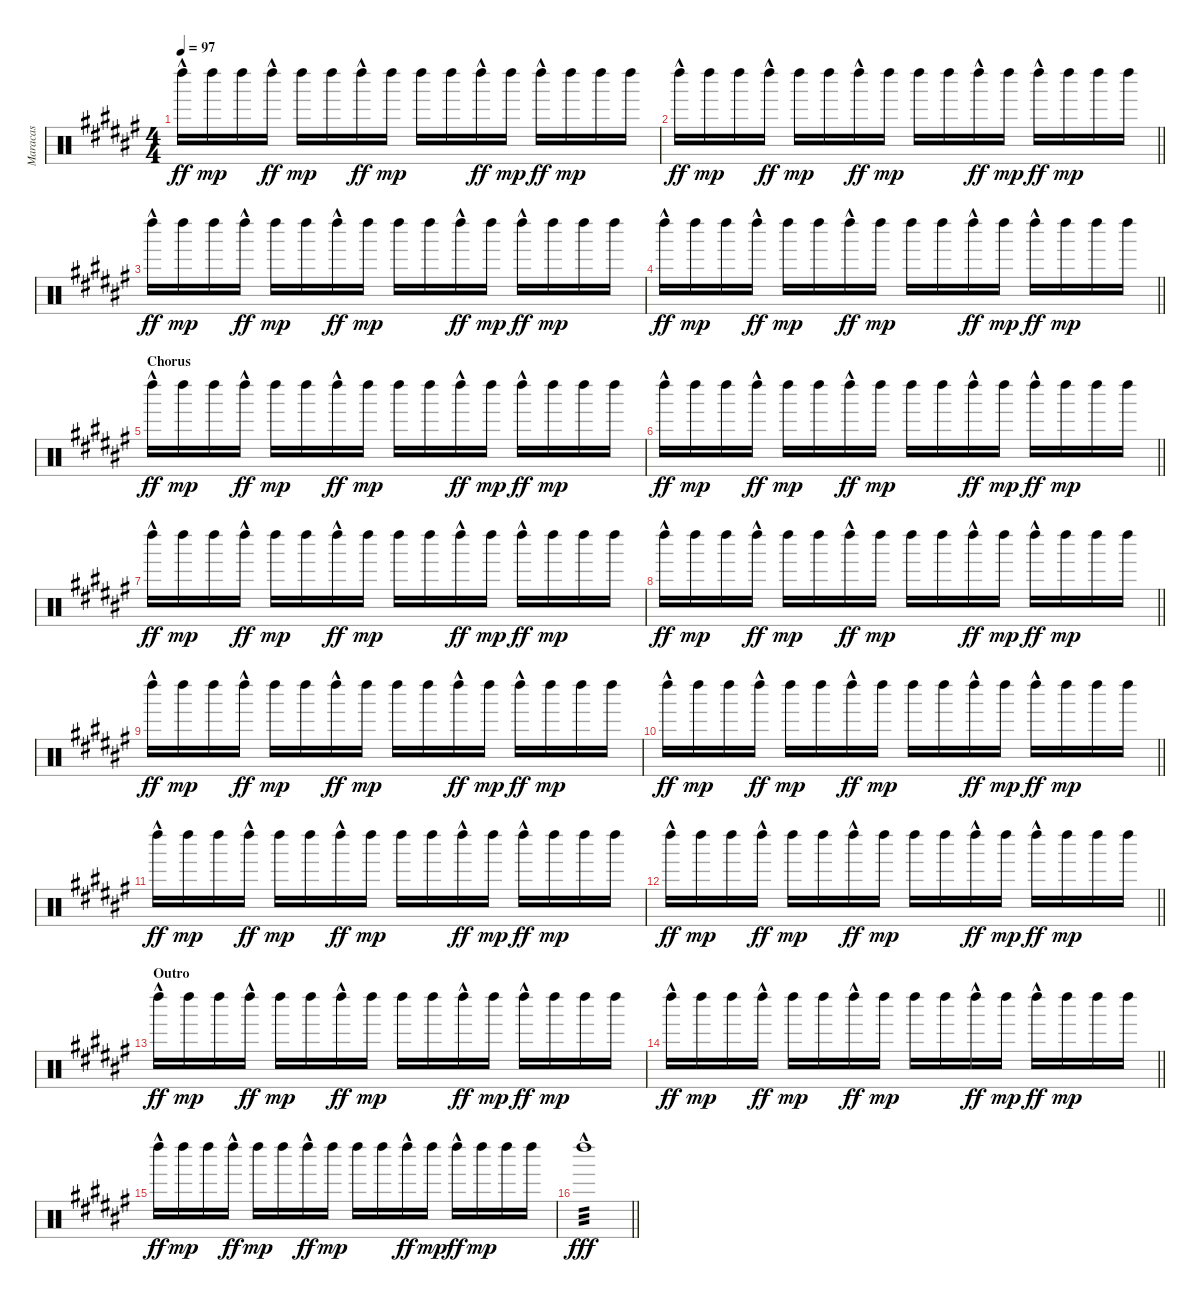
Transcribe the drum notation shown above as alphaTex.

\track ("Maracas" "Maracas") {instrument percussion}
\staff {score}
\articulation defaults
\ts (4 4)
\tempo 97
\clef neutral
\ks f# "Left Maraca (hit)"{hac}.16{dy ff} "Left Maraca (hit)".16{dy mp} "Left Maraca (hit)".16 "Left Maraca (hit)"{hac}.16{dy ff} "Left Maraca (hit)".16{dy mp} "Left Maraca (hit)".16 "Left Maraca (hit)"{hac}.16{dy ff} "Left Maraca (hit)".16{dy mp} "Left Maraca (hit)".16 "Left Maraca (hit)".16 "Left Maraca (hit)"{hac}.16{dy ff} "Left Maraca (hit)".16{dy mp} "Left Maraca (hit)"{hac}.16{dy ff} "Left Maraca (hit)".16{dy mp} "Left Maraca (hit)".16 "Left Maraca (hit)".16
|
\barLineRight lightlight "Left Maraca (hit)"{hac}.16{dy ff} "Left Maraca (hit)".16{dy mp} "Left Maraca (hit)".16 "Left Maraca (hit)"{hac}.16{dy ff} "Left Maraca (hit)".16{dy mp} "Left Maraca (hit)".16 "Left Maraca (hit)"{hac}.16{dy ff} "Left Maraca (hit)".16{dy mp} "Left Maraca (hit)".16 "Left Maraca (hit)".16 "Left Maraca (hit)"{hac}.16{dy ff} "Left Maraca (hit)".16{dy mp} "Left Maraca (hit)"{hac}.16{dy ff} "Left Maraca (hit)".16{dy mp} "Left Maraca (hit)".16 "Left Maraca (hit)".16
|
"Left Maraca (hit)"{hac}.16{dy ff} "Left Maraca (hit)".16{dy mp} "Left Maraca (hit)".16 "Left Maraca (hit)"{hac}.16{dy ff} "Left Maraca (hit)".16{dy mp} "Left Maraca (hit)".16 "Left Maraca (hit)"{hac}.16{dy ff} "Left Maraca (hit)".16{dy mp} "Left Maraca (hit)".16 "Left Maraca (hit)".16 "Left Maraca (hit)"{hac}.16{dy ff} "Left Maraca (hit)".16{dy mp} "Left Maraca (hit)"{hac}.16{dy ff} "Left Maraca (hit)".16{dy mp} "Left Maraca (hit)".16 "Left Maraca (hit)".16 |
\barLineRight lightlight "Left Maraca (hit)"{hac}.16{dy ff} "Left Maraca (hit)".16{dy mp} "Left Maraca (hit)".16 "Left Maraca (hit)"{hac}.16{dy ff} "Left Maraca (hit)".16{dy mp} "Left Maraca (hit)".16 "Left Maraca (hit)"{hac}.16{dy ff} "Left Maraca (hit)".16{dy mp} "Left Maraca (hit)".16 "Left Maraca (hit)".16 "Left Maraca (hit)"{hac}.16{dy ff} "Left Maraca (hit)".16{dy mp} "Left Maraca (hit)"{hac}.16{dy ff} "Left Maraca (hit)".16{dy mp} "Left Maraca (hit)".16 "Left Maraca (hit)".16
|
\section ("" "Chorus")
"Left Maraca (hit)"{hac}.16{dy ff} "Left Maraca (hit)".16{dy mp} "Left Maraca (hit)".16 "Left Maraca (hit)"{hac}.16{dy ff} "Left Maraca (hit)".16{dy mp} "Left Maraca (hit)".16 "Left Maraca (hit)"{hac}.16{dy ff} "Left Maraca (hit)".16{dy mp} "Left Maraca (hit)".16 "Left Maraca (hit)".16 "Left Maraca (hit)"{hac}.16{dy ff} "Left Maraca (hit)".16{dy mp} "Left Maraca (hit)"{hac}.16{dy ff} "Left Maraca (hit)".16{dy mp} "Left Maraca (hit)".16 "Left Maraca (hit)".16 |
\barLineRight lightlight "Left Maraca (hit)"{hac}.16{dy ff} "Left Maraca (hit)".16{dy mp} "Left Maraca (hit)".16 "Left Maraca (hit)"{hac}.16{dy ff} "Left Maraca (hit)".16{dy mp} "Left Maraca (hit)".16 "Left Maraca (hit)"{hac}.16{dy ff} "Left Maraca (hit)".16{dy mp} "Left Maraca (hit)".16 "Left Maraca (hit)".16 "Left Maraca (hit)"{hac}.16{dy ff} "Left Maraca (hit)".16{dy mp} "Left Maraca (hit)"{hac}.16{dy ff} "Left Maraca (hit)".16{dy mp} "Left Maraca (hit)".16 "Left Maraca (hit)".16
|
"Left Maraca (hit)"{hac}.16{dy ff} "Left Maraca (hit)".16{dy mp} "Left Maraca (hit)".16 "Left Maraca (hit)"{hac}.16{dy ff} "Left Maraca (hit)".16{dy mp} "Left Maraca (hit)".16 "Left Maraca (hit)"{hac}.16{dy ff} "Left Maraca (hit)".16{dy mp} "Left Maraca (hit)".16 "Left Maraca (hit)".16 "Left Maraca (hit)"{hac}.16{dy ff} "Left Maraca (hit)".16{dy mp} "Left Maraca (hit)"{hac}.16{dy ff} "Left Maraca (hit)".16{dy mp} "Left Maraca (hit)".16 "Left Maraca (hit)".16 |
\barLineRight lightlight "Left Maraca (hit)"{hac}.16{dy ff} "Left Maraca (hit)".16{dy mp} "Left Maraca (hit)".16 "Left Maraca (hit)"{hac}.16{dy ff} "Left Maraca (hit)".16{dy mp} "Left Maraca (hit)".16 "Left Maraca (hit)"{hac}.16{dy ff} "Left Maraca (hit)".16{dy mp} "Left Maraca (hit)".16 "Left Maraca (hit)".16 "Left Maraca (hit)"{hac}.16{dy ff} "Left Maraca (hit)".16{dy mp} "Left Maraca (hit)"{hac}.16{dy ff} "Left Maraca (hit)".16{dy mp} "Left Maraca (hit)".16 "Left Maraca (hit)".16
|
"Left Maraca (hit)"{hac}.16{dy ff} "Left Maraca (hit)".16{dy mp} "Left Maraca (hit)".16 "Left Maraca (hit)"{hac}.16{dy ff} "Left Maraca (hit)".16{dy mp} "Left Maraca (hit)".16 "Left Maraca (hit)"{hac}.16{dy ff} "Left Maraca (hit)".16{dy mp} "Left Maraca (hit)".16 "Left Maraca (hit)".16 "Left Maraca (hit)"{hac}.16{dy ff} "Left Maraca (hit)".16{dy mp} "Left Maraca (hit)"{hac}.16{dy ff} "Left Maraca (hit)".16{dy mp} "Left Maraca (hit)".16 "Left Maraca (hit)".16 |
\barLineRight lightlight "Left Maraca (hit)"{hac}.16{dy ff} "Left Maraca (hit)".16{dy mp} "Left Maraca (hit)".16 "Left Maraca (hit)"{hac}.16{dy ff} "Left Maraca (hit)".16{dy mp} "Left Maraca (hit)".16 "Left Maraca (hit)"{hac}.16{dy ff} "Left Maraca (hit)".16{dy mp} "Left Maraca (hit)".16 "Left Maraca (hit)".16 "Left Maraca (hit)"{hac}.16{dy ff} "Left Maraca (hit)".16{dy mp} "Left Maraca (hit)"{hac}.16{dy ff} "Left Maraca (hit)".16{dy mp} "Left Maraca (hit)".16 "Left Maraca (hit)".16
|
"Left Maraca (hit)"{hac}.16{dy ff} "Left Maraca (hit)".16{dy mp} "Left Maraca (hit)".16 "Left Maraca (hit)"{hac}.16{dy ff} "Left Maraca (hit)".16{dy mp} "Left Maraca (hit)".16 "Left Maraca (hit)"{hac}.16{dy ff} "Left Maraca (hit)".16{dy mp} "Left Maraca (hit)".16 "Left Maraca (hit)".16 "Left Maraca (hit)"{hac}.16{dy ff} "Left Maraca (hit)".16{dy mp} "Left Maraca (hit)"{hac}.16{dy ff} "Left Maraca (hit)".16{dy mp} "Left Maraca (hit)".16 "Left Maraca (hit)".16 |
\barLineRight lightlight "Left Maraca (hit)"{hac}.16{dy ff} "Left Maraca (hit)".16{dy mp} "Left Maraca (hit)".16 "Left Maraca (hit)"{hac}.16{dy ff} "Left Maraca (hit)".16{dy mp} "Left Maraca (hit)".16 "Left Maraca (hit)"{hac}.16{dy ff} "Left Maraca (hit)".16{dy mp} "Left Maraca (hit)".16 "Left Maraca (hit)".16 "Left Maraca (hit)"{hac}.16{dy ff} "Left Maraca (hit)".16{dy mp} "Left Maraca (hit)"{hac}.16{dy ff} "Left Maraca (hit)".16{dy mp} "Left Maraca (hit)".16 "Left Maraca (hit)".16
|
\section ("" "Outro")
"Left Maraca (hit)"{hac}.16{dy ff} "Left Maraca (hit)".16{dy mp} "Left Maraca (hit)".16 "Left Maraca (hit)"{hac}.16{dy ff} "Left Maraca (hit)".16{dy mp} "Left Maraca (hit)".16 "Left Maraca (hit)"{hac}.16{dy ff} "Left Maraca (hit)".16{dy mp} "Left Maraca (hit)".16 "Left Maraca (hit)".16 "Left Maraca (hit)"{hac}.16{dy ff} "Left Maraca (hit)".16{dy mp} "Left Maraca (hit)"{hac}.16{dy ff} "Left Maraca (hit)".16{dy mp} "Left Maraca (hit)".16 "Left Maraca (hit)".16 |
\barLineRight lightlight "Left Maraca (hit)"{hac}.16{dy ff} "Left Maraca (hit)".16{dy mp} "Left Maraca (hit)".16 "Left Maraca (hit)"{hac}.16{dy ff} "Left Maraca (hit)".16{dy mp} "Left Maraca (hit)".16 "Left Maraca (hit)"{hac}.16{dy ff} "Left Maraca (hit)".16{dy mp} "Left Maraca (hit)".16 "Left Maraca (hit)".16 "Left Maraca (hit)"{hac}.16{dy ff} "Left Maraca (hit)".16{dy mp} "Left Maraca (hit)"{hac}.16{dy ff} "Left Maraca (hit)".16{dy mp} "Left Maraca (hit)".16 "Left Maraca (hit)".16
|
"Left Maraca (hit)"{hac}.16{dy ff} "Left Maraca (hit)".16{dy mp} "Left Maraca (hit)".16 "Left Maraca (hit)"{hac}.16{dy ff} "Left Maraca (hit)".16{dy mp} "Left Maraca (hit)".16 "Left Maraca (hit)"{hac}.16{dy ff} "Left Maraca (hit)".16{dy mp} "Left Maraca (hit)".16 "Left Maraca (hit)".16 "Left Maraca (hit)"{hac}.16{dy ff} "Left Maraca (hit)".16{dy mp} "Left Maraca (hit)"{hac}.16{dy ff} "Left Maraca (hit)".16{dy mp} "Left Maraca (hit)".16 "Left Maraca (hit)".16 |
\barLineRight lightlight "Left Maraca (hit)"{hac}.1{tp 3 dy fff}
